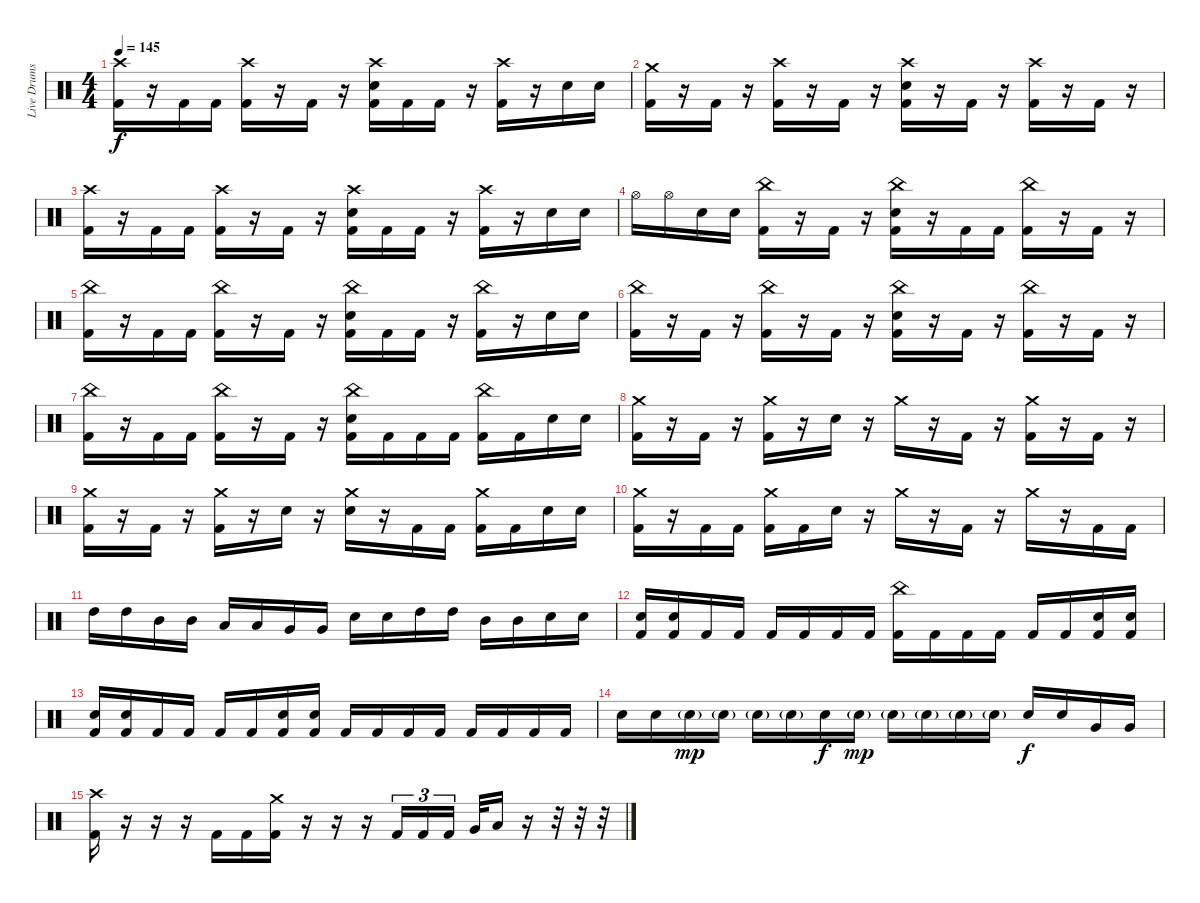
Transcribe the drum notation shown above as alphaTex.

\track ("Live Drums" "Live Drums") {instrument percussion}
\staff {score}
\articulation defaults
\ts (4 4)
\tempo 145
\clef neutral
\ks c
("Crash high (hit)" "Kick (hit) 2").16{dy f} r.16 "Kick (hit) 2".16 "Kick (hit) 2".16 ("Crash high (hit)" "Kick (hit) 2").16 r.16 "Kick (hit) 2".16 r.16 ("Crash high (hit)" "Snare (hit) 2" "Kick (hit) 2").16 "Kick (hit) 2".16 "Kick (hit) 2".16 r.16 ("Crash high (hit)" "Kick (hit) 2").16 r.16 "Snare (hit) 2".16 "Snare (hit) 2".16 |
("Crash medium (hit)" "Kick (hit) 2").16 r.16 "Kick (hit) 2".16 r.16 ("Crash high (hit)" "Kick (hit) 2").16 r.16 "Kick (hit) 2".16 r.16 ("Crash high (hit)" "Snare (hit) 2" "Kick (hit) 2").16 r.16 "Kick (hit) 2".16 r.16 ("Crash high (hit)" "Kick (hit) 2").16 r.16 "Kick (hit) 2".16 r.16 |
("Crash high (hit)" "Kick (hit) 2").16 r.16 "Kick (hit) 2".16 "Kick (hit) 2".16 ("Crash high (hit)" "Kick (hit) 2").16 r.16 "Kick (hit) 2".16 r.16 ("Crash high (hit)" "Snare (hit) 2" "Kick (hit) 2").16 "Kick (hit) 2".16 "Kick (hit) 2".16 r.16 ("Crash high (hit)" "Kick (hit) 2").16 r.16 "Snare (hit) 2".16 "Snare (hit) 2".16 |
"Hi-Hat (open)".16 "Hi-Hat (open)".16 "Snare (hit) 2".16 "Snare (hit) 2".16 ("China (hit)" "Kick (hit) 2").16 r.16 "Kick (hit) 2".16 r.16 ("China (hit)" "Snare (hit) 2" "Kick (hit) 2").16 r.16 "Kick (hit) 2".16 "Kick (hit) 2".16 ("China (hit)" "Kick (hit) 2").16 r.16 "Kick (hit) 2".16 r.16 |
("China (hit)" "Kick (hit) 2").16 r.16 "Kick (hit) 2".16 "Kick (hit) 2".16 ("China (hit)" "Kick (hit) 2").16 r.16 "Kick (hit) 2".16 r.16 ("China (hit)" "Snare (hit) 2" "Kick (hit) 2").16 "Kick (hit) 2".16 "Kick (hit) 2".16 r.16 ("China (hit)" "Kick (hit) 2").16 r.16 "Snare (hit) 2".16 "Snare (hit) 2".16 |
("China (hit)" "Kick (hit) 2").16 r.16 "Kick (hit) 2".16 r.16 ("China (hit)" "Kick (hit) 2").16 r.16 "Kick (hit) 2".16 r.16 ("China (hit)" "Snare (hit) 2" "Kick (hit) 2").16 r.16 "Kick (hit) 2".16 r.16 ("China (hit)" "Kick (hit) 2").16 r.16 "Kick (hit) 2".16 r.16 |
("China (hit)" "Kick (hit) 2").16 r.16 "Kick (hit) 2".16 "Kick (hit) 2".16 ("China (hit)" "Kick (hit) 2").16 r.16 "Kick (hit) 2".16 r.16 ("China (hit)" "Snare (hit) 2" "Kick (hit) 2").16 "Kick (hit) 2".16 "Kick (hit) 2".16 "Kick (hit) 2".16 ("China (hit)" "Kick (hit) 2").16 "Kick (hit) 2".16 "Snare (hit) 2".16 "Snare (hit) 2".16 |
("Crash medium (hit)" "Kick (hit) 2").16 r.16 "Kick (hit) 2".16 r.16 ("Crash medium (hit)" "Kick (hit) 2").16 r.16 "Snare (hit) 2".16 r.16 "Crash medium (hit)".16 r.16 "Kick (hit) 2".16 r.16 ("Crash medium (hit)" "Kick (hit) 2").16 r.16 "Kick (hit) 2".16 r.16 |
("Crash medium (hit)" "Kick (hit) 2").16 r.16 "Kick (hit) 2".16 r.16 ("Crash medium (hit)" "Kick (hit) 2").16 r.16 "Snare (hit) 2".16 r.16 ("Crash medium (hit)" "Snare (hit) 2").16 r.16 "Kick (hit) 2".16 "Kick (hit) 2".16 ("Crash medium (hit)" "Kick (hit) 2").16 "Kick (hit) 2".16 "Snare (hit) 2".16 "Snare (hit) 2".16 |
("Crash medium (hit)" "Kick (hit) 2").16 r.16 "Kick (hit) 2".16 "Kick (hit) 2".16 ("Crash medium (hit)" "Kick (hit) 2").16 "Kick (hit) 2".16 "Snare (hit) 2".16 r.16 "Crash medium (hit)".16 r.16 "Kick (hit) 2".16 r.16 "Crash medium (hit)".16 r.16 "Kick (hit) 2".16 "Kick (hit) 2".16 |
"High Tom (hit)".16 "High Tom (hit)".16 "Mid Tom (hit)".16 "Mid Tom (hit)".16 "Low Tom (hit)".16 "Low Tom (hit)".16 "Very Low Tom (hit)".16 "Very Low Tom (hit)".16 "Snare (hit) 2".16 "Snare (hit) 2".16 "High Tom (hit)".16 "High Tom (hit)".16 "Mid Tom (hit)".16 "Mid Tom (hit)".16 "Snare (hit) 2".16 "Snare (hit) 2".16 |
("Snare (hit) 2" "Kick (hit) 2").16 ("Snare (hit) 2" "Kick (hit) 2").16 "Kick (hit) 2".16 "Kick (hit) 2".16 "Kick (hit) 2".16 "Kick (hit) 2".16 "Kick (hit) 2".16 "Kick (hit) 2".16 ("China (hit)" "Kick (hit) 2").16 "Kick (hit) 2".16 "Kick (hit) 2".16 "Kick (hit) 2".16 "Kick (hit) 2".16 "Kick (hit) 2".16 ("Snare (hit) 2" "Kick (hit) 2").16 ("Snare (hit) 2" "Kick (hit) 2").16 |
("Snare (hit) 2" "Kick (hit) 2").16 ("Snare (hit) 2" "Kick (hit) 2").16 "Kick (hit) 2".16 "Kick (hit) 2".16 "Kick (hit) 2".16 "Kick (hit) 2".16 ("Snare (hit) 2" "Kick (hit) 2").16 ("Snare (hit) 2" "Kick (hit) 2").16 "Kick (hit) 2".16 "Kick (hit) 2".16 "Kick (hit) 2".16 "Kick (hit) 2".16 "Kick (hit) 2".16 "Kick (hit) 2".16 "Kick (hit) 2".16 "Kick (hit) 2".16 |
"Snare (hit) 2".16 "Snare (hit) 2".16 "Snare (hit) 2"{g}.16{dy mp} "Snare (hit) 2"{g}.16 "Snare (hit) 2"{g}.16 "Snare (hit) 2"{g}.16 "Snare (hit) 2".16{dy f} "Snare (hit) 2"{g}.16{dy mp} "Snare (hit) 2"{g}.16 "Snare (hit) 2"{g}.16 "Snare (hit) 2"{g}.16 "Snare (hit) 2"{g}.16 "Snare (hit) 2".16{dy f} "Snare (hit) 2".16 "Very Low Tom (hit)".16 "Very Low Tom (hit)".16 |
("Crash high (hit)" "Kick (hit) 2").16 r.16 r.16 r.16 "Kick (hit) 2".16 "Kick (hit) 2".16 ("Crash medium (hit)" "Kick (hit) 2").16 r.16 r.16 r.16 "Kick (hit) 2".16{tu (3 2)} "Kick (hit) 2".16{tu (3 2)} "Kick (hit) 2".16{tu (3 2)} "Very Low Tom (hit)".32 "Low Tom (hit)".16 r.16 r.32 r.32 r.32
